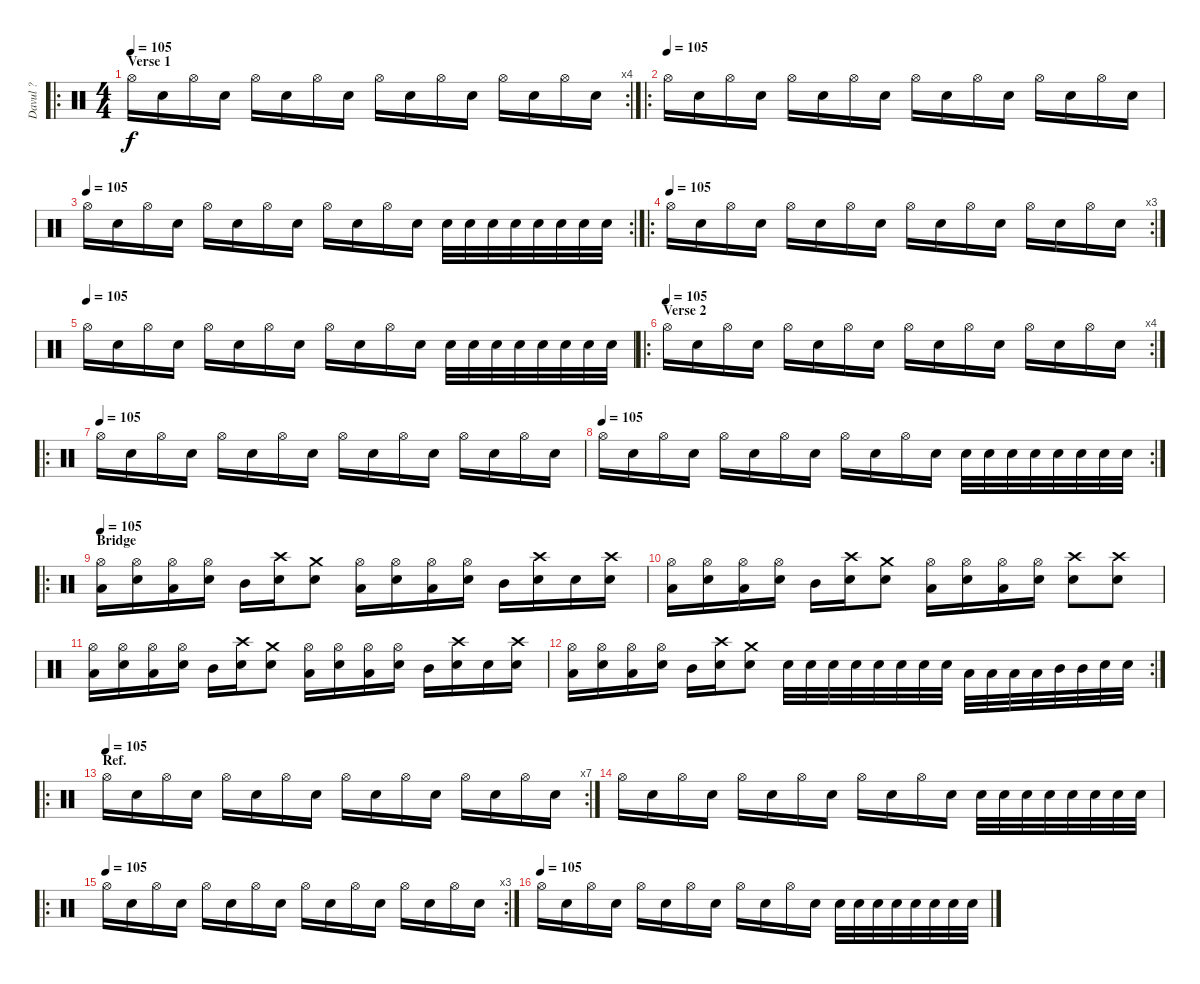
\track ("Davul ?" "Davul ?") {instrument percussion}
\staff {score}
\articulation defaults
\ro
\rc 4
\ts (4 4)
\section ("" "Verse 1")
\tempo 105
\clef neutral
\ks c "Hi-Hat (open)".16{dy f} "Snare (hit) 2".16 "Hi-Hat (open)".16 "Snare (hit) 2".16 "Hi-Hat (open)".16 "Snare (hit) 2".16 "Hi-Hat (open)".16 "Snare (hit) 2".16 "Hi-Hat (open)".16 "Snare (hit) 2".16 "Hi-Hat (open)".16 "Snare (hit) 2".16 "Hi-Hat (open)".16 "Snare (hit) 2".16 "Hi-Hat (open)".16 "Snare (hit) 2".16
|
\ro
\tempo (105)
"Hi-Hat (open)".16 "Snare (hit) 2".16 "Hi-Hat (open)".16 "Snare (hit) 2".16 "Hi-Hat (open)".16 "Snare (hit) 2".16 "Hi-Hat (open)".16 "Snare (hit) 2".16 "Hi-Hat (open)".16 "Snare (hit) 2".16 "Hi-Hat (open)".16 "Snare (hit) 2".16 "Hi-Hat (open)".16 "Snare (hit) 2".16 "Hi-Hat (open)".16 "Snare (hit) 2".16 |
\rc 2
\tempo (105)
"Hi-Hat (open)".16 "Snare (hit) 2".16 "Hi-Hat (open)".16 "Snare (hit) 2".16 "Hi-Hat (open)".16 "Snare (hit) 2".16 "Hi-Hat (open)".16 "Snare (hit) 2".16 "Hi-Hat (open)".16 "Snare (hit) 2".16 "Hi-Hat (open)".16 "Snare (hit) 2".16 "Electric Snare (hit)".32 "Electric Snare (hit)".32 "Electric Snare (hit)".32 "Electric Snare (hit)".32 "Electric Snare (hit)".32 "Electric Snare (hit)".32 "Electric Snare (hit)".32 "Electric Snare (hit)".32 |
\ro
\rc 3
\tempo (105)
"Hi-Hat (open)".16 "Snare (hit) 2".16 "Hi-Hat (open)".16 "Snare (hit) 2".16 "Hi-Hat (open)".16 "Snare (hit) 2".16 "Hi-Hat (open)".16 "Snare (hit) 2".16 "Hi-Hat (open)".16 "Snare (hit) 2".16 "Hi-Hat (open)".16 "Snare (hit) 2".16 "Hi-Hat (open)".16 "Snare (hit) 2".16 "Hi-Hat (open)".16 "Snare (hit) 2".16 |
\tempo (105)
"Hi-Hat (open)".16 "Snare (hit) 2".16 "Hi-Hat (open)".16 "Snare (hit) 2".16 "Hi-Hat (open)".16 "Snare (hit) 2".16 "Hi-Hat (open)".16 "Snare (hit) 2".16 "Hi-Hat (open)".16 "Snare (hit) 2".16 "Hi-Hat (open)".16 "Snare (hit) 2".16 "Electric Snare (hit)".32 "Electric Snare (hit)".32 "Electric Snare (hit)".32 "Electric Snare (hit)".32 "Electric Snare (hit)".32 "Electric Snare (hit)".32 "Electric Snare (hit)".32 "Electric Snare (hit)".32 |
\ro
\rc 4
\section ("" "Verse 2")
\tempo (105)
"Hi-Hat (open)".16 "Snare (hit) 2".16 "Hi-Hat (open)".16 "Snare (hit) 2".16 "Hi-Hat (open)".16 "Snare (hit) 2".16 "Hi-Hat (open)".16 "Snare (hit) 2".16 "Hi-Hat (open)".16 "Snare (hit) 2".16 "Hi-Hat (open)".16 "Snare (hit) 2".16 "Hi-Hat (open)".16 "Snare (hit) 2".16 "Hi-Hat (open)".16 "Snare (hit) 2".16 |
\ro
\tempo (105)
"Hi-Hat (open)".16 "Snare (hit) 2".16 "Hi-Hat (open)".16 "Snare (hit) 2".16 "Hi-Hat (open)".16 "Snare (hit) 2".16 "Hi-Hat (open)".16 "Snare (hit) 2".16 "Hi-Hat (open)".16 "Snare (hit) 2".16 "Hi-Hat (open)".16 "Snare (hit) 2".16 "Hi-Hat (open)".16 "Snare (hit) 2".16 "Hi-Hat (open)".16 "Snare (hit) 2".16 |
\rc 2
\tempo (105)
"Hi-Hat (open)".16 "Snare (hit) 2".16 "Hi-Hat (open)".16 "Snare (hit) 2".16 "Hi-Hat (open)".16 "Snare (hit) 2".16 "Hi-Hat (open)".16 "Snare (hit) 2".16 "Hi-Hat (open)".16 "Snare (hit) 2".16 "Hi-Hat (open)".16 "Snare (hit) 2".16 "Electric Snare (hit)".32 "Electric Snare (hit)".32 "Electric Snare (hit)".32 "Electric Snare (hit)".32 "Electric Snare (hit)".32 "Electric Snare (hit)".32 "Electric Snare (hit)".32 "Electric Snare (hit)".32 |
\ro
\section ("" "Bridge")
\tempo 105
("Hi-Hat (open)" "Low Tom (hit)").16 ("Hi-Hat (open)" "Snare (hit) 2").16 ("Hi-Hat (open)" "Low Tom (hit)").16 ("Hi-Hat (open)" "Snare (hit) 2").16 "Mid Tom (hit)".16 ("Crash high (hit)" "Snare (hit) 2").16 ("Crash medium (hit)" "Electric Snare (hit)").8 ("Hi-Hat (open)" "Low Tom (hit)").16 ("Hi-Hat (open)" "Snare (hit) 2").16 ("Hi-Hat (open)" "Low Tom (hit)").16 ("Hi-Hat (open)" "Snare (hit) 2").16 "Mid Tom (hit)".16 ("Crash high (hit)" "Snare (hit) 2").16 "Electric Snare (hit)".16 ("Crash high (hit)" "Snare (hit) 2").16 |
("Hi-Hat (open)" "Low Tom (hit)").16 ("Hi-Hat (open)" "Snare (hit) 2").16 ("Hi-Hat (open)" "Low Tom (hit)").16 ("Hi-Hat (open)" "Snare (hit) 2").16 "Mid Tom (hit)".16 ("Crash high (hit)" "Snare (hit) 2").16 ("Crash medium (hit)" "Electric Snare (hit)").8 ("Hi-Hat (open)" "Low Tom (hit)").16 ("Hi-Hat (open)" "Snare (hit) 2").16 ("Hi-Hat (open)" "Low Tom (hit)").16 ("Hi-Hat (open)" "Snare (hit) 2").16 ("Crash high (hit)" "Electric Snare (hit)").8 ("Crash high (hit)" "Electric Snare (hit)").8 |
("Hi-Hat (open)" "Low Tom (hit)").16 ("Hi-Hat (open)" "Snare (hit) 2").16 ("Hi-Hat (open)" "Low Tom (hit)").16 ("Hi-Hat (open)" "Snare (hit) 2").16 "Mid Tom (hit)".16 ("Crash high (hit)" "Snare (hit) 2").16 ("Crash medium (hit)" "Electric Snare (hit)").8 ("Hi-Hat (open)" "Low Tom (hit)").16 ("Hi-Hat (open)" "Snare (hit) 2").16 ("Hi-Hat (open)" "Low Tom (hit)").16 ("Hi-Hat (open)" "Snare (hit) 2").16 "Mid Tom (hit)".16 ("Crash high (hit)" "Snare (hit) 2").16 "Electric Snare (hit)".16 ("Crash high (hit)" "Snare (hit) 2").16 |
\rc 2
("Hi-Hat (open)" "Low Tom (hit)").16 ("Hi-Hat (open)" "Snare (hit) 2").16 ("Hi-Hat (open)" "Low Tom (hit)").16 ("Hi-Hat (open)" "Snare (hit) 2").16 "Mid Tom (hit)".16 ("Crash high (hit)" "Snare (hit) 2").16 ("Crash medium (hit)" "Electric Snare (hit)").8 "Snare (hit) 2".32 "Snare (hit) 2".32 "Snare (hit) 2".32 "Snare (hit) 2".32 "Snare (hit) 2".32 "Snare (hit) 2".32 "Snare (hit) 2".32 "Snare (hit) 2".32 "Low Tom (hit)".32 "Low Tom (hit)".32 "Low Tom (hit)".32 "Low Tom (hit)".32 "Mid Tom (hit)".32 "Mid Tom (hit)".32 "Snare (hit) 2".32 "Electric Snare (hit)".32 |
\ro
\rc 7
\section ("" "Ref.")
\tempo (105)
"Hi-Hat (open)".16 "Snare (hit) 2".16 "Hi-Hat (open)".16 "Snare (hit) 2".16 "Hi-Hat (open)".16 "Snare (hit) 2".16 "Hi-Hat (open)".16 "Snare (hit) 2".16 "Hi-Hat (open)".16 "Snare (hit) 2".16 "Hi-Hat (open)".16 "Snare (hit) 2".16 "Hi-Hat (open)".16 "Snare (hit) 2".16 "Hi-Hat (open)".16 "Snare (hit) 2".16 |
"Hi-Hat (open)".16 "Snare (hit) 2".16 "Hi-Hat (open)".16 "Snare (hit) 2".16 "Hi-Hat (open)".16 "Snare (hit) 2".16 "Hi-Hat (open)".16 "Snare (hit) 2".16 "Hi-Hat (open)".16 "Snare (hit) 2".16 "Hi-Hat (open)".16 "Snare (hit) 2".16 "Electric Snare (hit)".32 "Electric Snare (hit)".32 "Electric Snare (hit)".32 "Electric Snare (hit)".32 "Electric Snare (hit)".32 "Electric Snare (hit)".32 "Electric Snare (hit)".32 "Electric Snare (hit)".32 |
\ro
\rc 3
\tempo (105)
"Hi-Hat (open)".16 "Snare (hit) 2".16 "Hi-Hat (open)".16 "Snare (hit) 2".16 "Hi-Hat (open)".16 "Snare (hit) 2".16 "Hi-Hat (open)".16 "Snare (hit) 2".16 "Hi-Hat (open)".16 "Snare (hit) 2".16 "Hi-Hat (open)".16 "Snare (hit) 2".16 "Hi-Hat (open)".16 "Snare (hit) 2".16 "Hi-Hat (open)".16 "Snare (hit) 2".16 |
\tempo (105)
"Hi-Hat (open)".16 "Snare (hit) 2".16 "Hi-Hat (open)".16 "Snare (hit) 2".16 "Hi-Hat (open)".16 "Snare (hit) 2".16 "Hi-Hat (open)".16 "Snare (hit) 2".16 "Hi-Hat (open)".16 "Snare (hit) 2".16 "Hi-Hat (open)".16 "Snare (hit) 2".16 "Electric Snare (hit)".32 "Electric Snare (hit)".32 "Electric Snare (hit)".32 "Electric Snare (hit)".32 "Electric Snare (hit)".32 "Electric Snare (hit)".32 "Electric Snare (hit)".32 "Electric Snare (hit)".32
